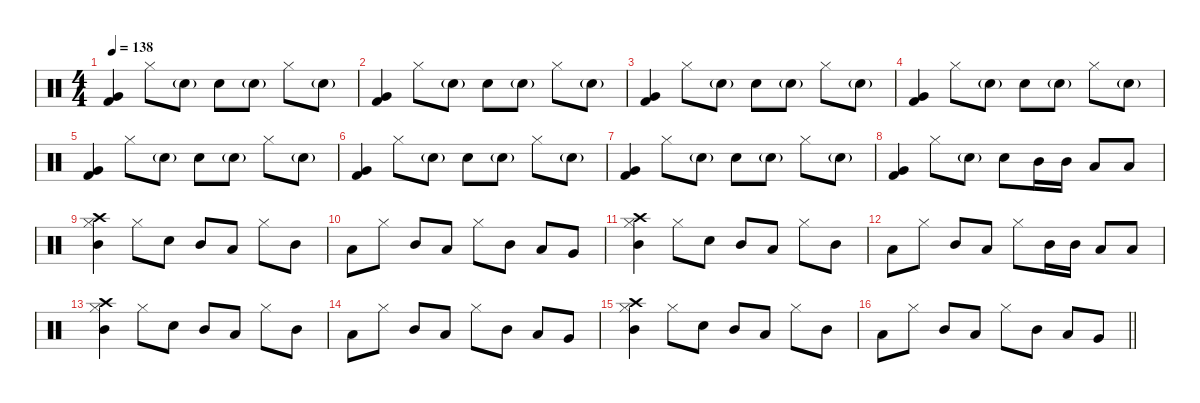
\defaultSystemsLayout 4
\hideDynamics
\bracketExtendMode nobrackets
\singleTrackTrackNamePolicy hidden
\multiTrackTrackNamePolicy hidden
\otherSystemsTrackNameOrientation horizontal
\track ("Drums" "drm.") {instrument percussion}
\staff {score}
\articulation defaults
\ts (4 4)
\tempo 138
\clef neutral
\ks c
("Very Low Tom (hit)" "Kick (hit) 2").4{dy mf beam Up} "Hi-Hat (closed)".8{dy fff beam Down} "Snare (hit) 2"{g}.8{dy f beam Down} "Snare (hit) 2".8{dy fff beam Down} "Snare (hit) 2"{g}.8{dy f beam Down} "Hi-Hat (closed)".8{dy fff beam Down} "Snare (hit) 2"{g}.8{dy mp beam Down} |
("Very Low Tom (hit)" "Kick (hit) 2").4{dy mf beam Up} "Hi-Hat (closed)".8{dy fff beam Down} "Snare (hit) 2"{g}.8{dy f beam Down} "Snare (hit) 2".8{dy fff beam Down} "Snare (hit) 2"{g}.8{dy f beam Down} "Hi-Hat (closed)".8{dy fff beam Down} "Snare (hit) 2"{g}.8{dy f beam Down} |
("Very Low Tom (hit)" "Kick (hit) 2").4{dy mf beam Up} "Hi-Hat (closed)".8{dy fff beam Down} "Snare (hit) 2"{g}.8{dy f beam Down} "Snare (hit) 2".8{dy ff beam Down} "Snare (hit) 2"{g}.8{dy f beam Down} "Hi-Hat (closed)".8{dy fff beam Down} "Snare (hit) 2"{g}.8{dy f beam Down} |
("Very Low Tom (hit)" "Kick (hit) 2").4{dy mf beam Up} "Hi-Hat (closed)".8{dy fff beam Down} "Snare (hit) 2"{g}.8{dy f beam Down} "Snare (hit) 2".8{dy fff beam Down} "Snare (hit) 2"{g}.8{dy f beam Down} "Hi-Hat (closed)".8{dy fff beam Down} "Snare (hit) 2"{g}.8{dy f beam Down} |
("Very Low Tom (hit)" "Kick (hit) 2").4{dy mf beam Up} "Hi-Hat (closed)".8{dy fff beam Down} "Snare (hit) 2"{g}.8{dy f beam Down} "Snare (hit) 2".8{dy fff beam Down} "Snare (hit) 2"{g}.8{dy f beam Down} "Hi-Hat (closed)".8{dy fff beam Down} "Snare (hit) 2"{g}.8{dy f beam Down} |
("Very Low Tom (hit)" "Kick (hit) 2").4{dy mf beam Up} "Hi-Hat (closed)".8{dy fff beam Down} "Snare (hit) 2"{g}.8{dy f beam Down} "Snare (hit) 2".8{dy fff beam Down} "Snare (hit) 2"{g}.8{dy f beam Down} "Hi-Hat (closed)".8{dy fff beam Down} "Snare (hit) 2"{g}.8{dy f beam Down} |
("Very Low Tom (hit)" "Kick (hit) 2").4{dy mf beam Up} "Hi-Hat (closed)".8{dy fff beam Down} "Snare (hit) 2"{g}.8{dy f beam Down} "Snare (hit) 2".8{dy fff beam Down} "Snare (hit) 2"{g}.8{dy f beam Down} "Hi-Hat (closed)".8{dy fff beam Down} "Snare (hit) 2"{g}.8{dy f beam Down} |
("Very Low Tom (hit)" "Kick (hit) 2").4{dy mf beam Up} "Hi-Hat (closed)".8{dy fff beam Down} "Snare (hit) 2"{g}.8{dy f beam Down} "Snare (hit) 2".8{dy ff beam Down} "Mid Tom (hit)".16{dy mf beam Down} "Mid Tom (hit)".16{beam Down} "Low Tom (hit)".8{beam Up} "Low Tom (hit)".8{beam Up} |
("Crash high (hit)" "Hi-Hat (closed)" "Mid Tom (hit)").4{dy ff beam Down} "Hi-Hat (closed)".8{beam Down} "Snare (hit) 2".8{beam Down} "Mid Tom (hit)".8{beam Up} "Low Tom (hit)".8{beam Up} "Hi-Hat (closed)".8{beam Down} "Mid Tom (hit)".8{beam Down} |
"Low Tom (hit)".8{beam Down} "Hi-Hat (closed)".8{beam Down} "Mid Tom (hit)".8{beam Up} "Low Tom (hit)".8{beam Up} "Hi-Hat (closed)".8{beam Down} "Mid Tom (hit)".8{beam Down} "Low Tom (hit)".8{beam Up} "Very Low Tom (hit)".8{beam Up} |
("Crash high (hit)" "Hi-Hat (closed)" "Mid Tom (hit)").4{beam Down} "Hi-Hat (closed)".8{beam Down} "Snare (hit) 2".8{beam Down} "Mid Tom (hit)".8{beam Up} "Low Tom (hit)".8{beam Up} "Hi-Hat (closed)".8{beam Down} "Mid Tom (hit)".8{beam Down} |
"Low Tom (hit)".8{beam Down} "Hi-Hat (closed)".8{beam Down} "Mid Tom (hit)".8{beam Up} "Low Tom (hit)".8{beam Up} "Hi-Hat (closed)".8{beam Down} "Mid Tom (hit)".16{dy mf beam Down} "Mid Tom (hit)".16{beam Down} "Low Tom (hit)".8{beam Up} "Low Tom (hit)".8{beam Up} |
("Crash high (hit)" "Hi-Hat (closed)" "Mid Tom (hit)").4{dy ff beam Down} "Hi-Hat (closed)".8{beam Down} "Snare (hit) 2".8{beam Down} "Mid Tom (hit)".8{beam Up} "Low Tom (hit)".8{beam Up} "Hi-Hat (closed)".8{beam Down} "Mid Tom (hit)".8{beam Down} |
"Low Tom (hit)".8{beam Down} "Hi-Hat (closed)".8{beam Down} "Mid Tom (hit)".8{beam Up} "Low Tom (hit)".8{beam Up} "Hi-Hat (closed)".8{beam Down} "Mid Tom (hit)".8{beam Down} "Low Tom (hit)".8{beam Up} "Very Low Tom (hit)".8{beam Up} |
("Crash high (hit)" "Hi-Hat (closed)" "Mid Tom (hit)").4{beam Down} "Hi-Hat (closed)".8{beam Down} "Snare (hit) 2".8{beam Down} "Mid Tom (hit)".8{beam Up} "Low Tom (hit)".8{beam Up} "Hi-Hat (closed)".8{beam Down} "Mid Tom (hit)".8{beam Down} |
\barLineRight lightlight "Low Tom (hit)".8{beam Down} "Hi-Hat (closed)".8{beam Down} "Mid Tom (hit)".8{beam Up} "Low Tom (hit)".8{beam Up} "Hi-Hat (closed)".8{beam Down} "Mid Tom (hit)".8{beam Down} "Low Tom (hit)".8{beam Up} "Very Low Tom (hit)".8{beam Up}
